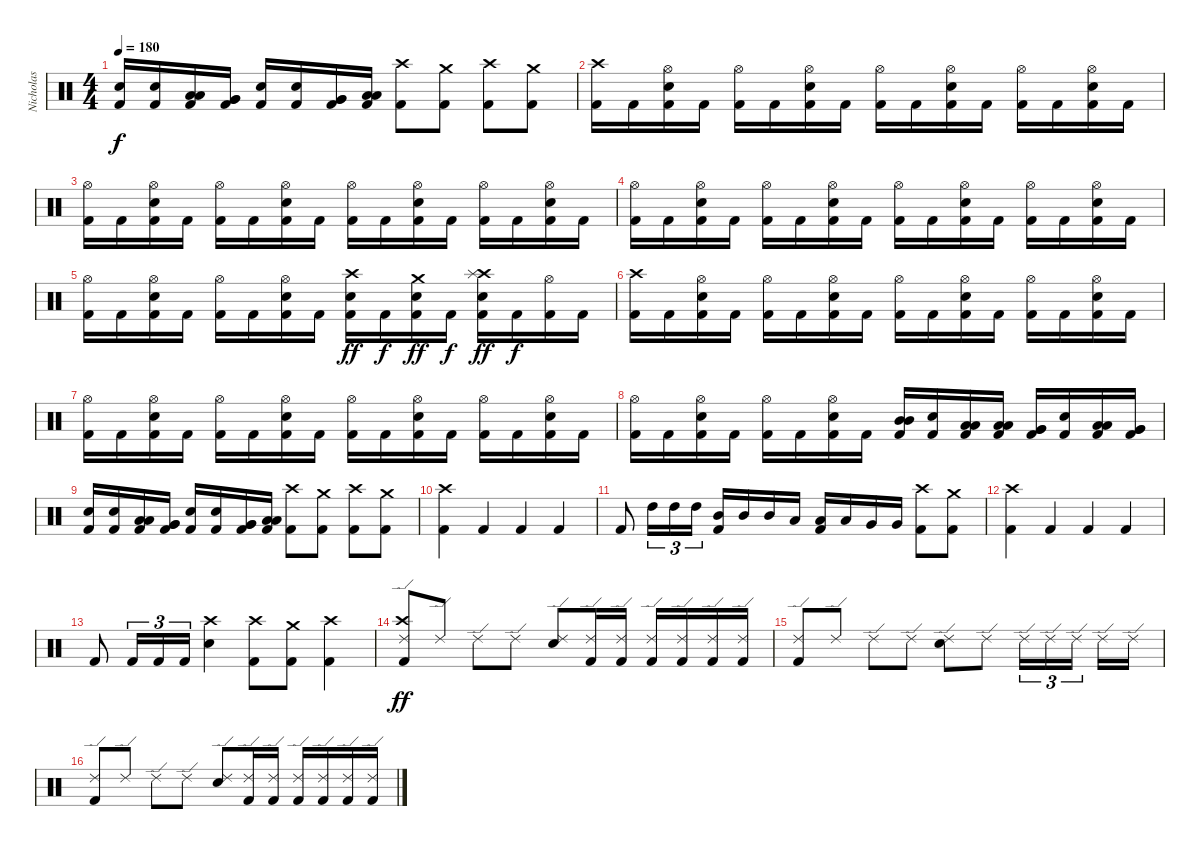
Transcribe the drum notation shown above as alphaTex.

\track ("Nicholas" "Nicholas") {instrument percussion}
\staff {score}
\articulation defaults
\ts (4 4)
\tempo 180
\clef neutral
\ks c
("Kick (hit) 2" "Electric Snare (hit)").16{dy f} ("Kick (hit) 2" "Electric Snare (hit)").16 ("Kick (hit) 2" "Low Tom (hit)" "Low Tom (hit)").16 ("Kick (hit) 2" "Very Low Tom (hit)" "Very Low Tom (hit)").16 ("Kick (hit) 2" "Electric Snare (hit)").16 ("Kick (hit) 2" "Electric Snare (hit)").16 ("Kick (hit) 2" "Very Low Tom (hit)" "Very Low Tom (hit)").16 ("Kick (hit) 2" "Low Floor Tom (hit)" "Low Floor Tom (hit)").16 ("Kick (hit) 2" "Crash high (hit)").8 ("Kick (hit) 2" "Crash medium (hit)").8 ("Kick (hit) 2" "Crash high (hit)").8 ("Kick (hit) 2" "Crash medium (hit)").8 |
("Kick (hit) 2" "Crash high (hit)").16 "Kick (hit) 2".16 ("Kick (hit) 2" "Electric Snare (hit)" "Hi-Hat (open)").16 "Kick (hit) 2".16 ("Kick (hit) 2" "Hi-Hat (open)").16 "Kick (hit) 2".16 ("Kick (hit) 2" "Electric Snare (hit)" "Hi-Hat (open)").16 "Kick (hit) 2".16 ("Kick (hit) 2" "Hi-Hat (open)").16 "Kick (hit) 2".16 ("Kick (hit) 2" "Electric Snare (hit)" "Hi-Hat (open)").16 "Kick (hit) 2".16 ("Kick (hit) 2" "Hi-Hat (open)").16 "Kick (hit) 2".16 ("Kick (hit) 2" "Electric Snare (hit)" "Hi-Hat (open)").16 "Kick (hit) 2".16 |
("Kick (hit) 2" "Hi-Hat (open)").16 "Kick (hit) 2".16 ("Kick (hit) 2" "Electric Snare (hit)" "Hi-Hat (open)").16 "Kick (hit) 2".16 ("Kick (hit) 2" "Hi-Hat (open)").16 "Kick (hit) 2".16 ("Kick (hit) 2" "Electric Snare (hit)" "Hi-Hat (open)").16 "Kick (hit) 2".16 ("Kick (hit) 2" "Hi-Hat (open)").16 "Kick (hit) 2".16 ("Kick (hit) 2" "Electric Snare (hit)" "Hi-Hat (open)").16 "Kick (hit) 2".16 ("Kick (hit) 2" "Hi-Hat (open)").16 "Kick (hit) 2".16 ("Kick (hit) 2" "Electric Snare (hit)" "Hi-Hat (open)").16 "Kick (hit) 2".16 |
("Kick (hit) 2" "Hi-Hat (open)").16 "Kick (hit) 2".16 ("Kick (hit) 2" "Electric Snare (hit)" "Hi-Hat (open)").16 "Kick (hit) 2".16 ("Kick (hit) 2" "Hi-Hat (open)").16 "Kick (hit) 2".16 ("Kick (hit) 2" "Electric Snare (hit)" "Hi-Hat (open)").16 "Kick (hit) 2".16 ("Kick (hit) 2" "Hi-Hat (open)").16 "Kick (hit) 2".16 ("Kick (hit) 2" "Electric Snare (hit)" "Hi-Hat (open)").16 "Kick (hit) 2".16 ("Kick (hit) 2" "Hi-Hat (open)").16 "Kick (hit) 2".16 ("Kick (hit) 2" "Electric Snare (hit)" "Hi-Hat (open)").16 "Kick (hit) 2".16 |
("Kick (hit) 2" "Hi-Hat (open)").16 "Kick (hit) 2".16 ("Kick (hit) 2" "Electric Snare (hit)" "Hi-Hat (open)").16 "Kick (hit) 2".16 ("Kick (hit) 2" "Hi-Hat (open)").16 "Kick (hit) 2".16 ("Kick (hit) 2" "Electric Snare (hit)" "Hi-Hat (open)").16 "Kick (hit) 2".16 ("Kick (hit) 2" "Electric Snare (hit)" "Crash high (hit)").16{dy ff} "Kick (hit) 2".16{dy f} ("Kick (hit) 2" "Electric Snare (hit)" "Crash medium (hit)").16{dy ff} "Kick (hit) 2".16{dy f} ("Kick (hit) 2" "Electric Snare (hit)" "Crash high (hit)" "Splash (hit)").16{dy ff} "Kick (hit) 2".16{dy f} ("Kick (hit) 2" "Hi-Hat (open)").16 "Kick (hit) 2".16 |
("Kick (hit) 2" "Crash high (hit)").16 "Kick (hit) 2".16 ("Kick (hit) 2" "Electric Snare (hit)" "Hi-Hat (open)").16 "Kick (hit) 2".16 ("Kick (hit) 2" "Hi-Hat (open)").16 "Kick (hit) 2".16 ("Kick (hit) 2" "Electric Snare (hit)" "Hi-Hat (open)").16 "Kick (hit) 2".16 ("Kick (hit) 2" "Hi-Hat (open)").16 "Kick (hit) 2".16 ("Kick (hit) 2" "Electric Snare (hit)" "Hi-Hat (open)").16 "Kick (hit) 2".16 ("Kick (hit) 2" "Hi-Hat (open)").16 "Kick (hit) 2".16 ("Kick (hit) 2" "Electric Snare (hit)" "Hi-Hat (open)").16 "Kick (hit) 2".16 |
("Kick (hit) 2" "Hi-Hat (open)").16 "Kick (hit) 2".16 ("Kick (hit) 2" "Electric Snare (hit)" "Hi-Hat (open)").16 "Kick (hit) 2".16 ("Kick (hit) 2" "Hi-Hat (open)").16 "Kick (hit) 2".16 ("Kick (hit) 2" "Electric Snare (hit)" "Hi-Hat (open)").16 "Kick (hit) 2".16 ("Kick (hit) 2" "Hi-Hat (open)").16 "Kick (hit) 2".16 ("Kick (hit) 2" "Electric Snare (hit)" "Hi-Hat (open)").16 "Kick (hit) 2".16 ("Kick (hit) 2" "Hi-Hat (open)").16 "Kick (hit) 2".16 ("Kick (hit) 2" "Electric Snare (hit)" "Hi-Hat (open)").16 "Kick (hit) 2".16 |
("Kick (hit) 2" "Hi-Hat (open)").16 "Kick (hit) 2".16 ("Kick (hit) 2" "Electric Snare (hit)" "Hi-Hat (open)").16 "Kick (hit) 2".16 ("Kick (hit) 2" "Hi-Hat (open)").16 "Kick (hit) 2".16 ("Kick (hit) 2" "Electric Snare (hit)" "Hi-Hat (open)").16 "Kick (hit) 2".16 ("Kick (hit) 2" "Mid Tom (hit)" "Mid Tom (hit)").16 ("Kick (hit) 2" "Electric Snare (hit)").16 ("Kick (hit) 2" "Low Tom (hit)" "Low Tom (hit)").16 ("Kick (hit) 2" "Low Tom (hit)" "Low Tom (hit)").16 ("Kick (hit) 2" "Very Low Tom (hit)" "Very Low Tom (hit)").16 ("Kick (hit) 2" "Electric Snare (hit)").16 ("Kick (hit) 2" "Low Tom (hit)" "Low Tom (hit)").16 ("Kick (hit) 2" "Very Low Tom (hit)" "Very Low Tom (hit)").16 |
("Kick (hit) 2" "Electric Snare (hit)").16 ("Kick (hit) 2" "Electric Snare (hit)").16 ("Kick (hit) 2" "Low Tom (hit)" "Low Tom (hit)").16 ("Kick (hit) 2" "Very Low Tom (hit)" "Very Low Tom (hit)").16 ("Kick (hit) 2" "Electric Snare (hit)").16 ("Kick (hit) 2" "Electric Snare (hit)").16 ("Kick (hit) 2" "Very Low Tom (hit)" "Very Low Tom (hit)").16 ("Kick (hit) 2" "Low Floor Tom (hit)" "Low Floor Tom (hit)").16 ("Kick (hit) 2" "Crash high (hit)").8 ("Kick (hit) 2" "Crash medium (hit)").8 ("Kick (hit) 2" "Crash high (hit)").8 ("Kick (hit) 2" "Crash medium (hit)").8 |
("Kick (hit) 2" "Crash high (hit)").4 "Kick (hit) 2".4 "Kick (hit) 2".4 "Kick (hit) 2".4 |
"Kick (hit) 2".8 "High Tom (hit)".16{tu (3 2)} "High Tom (hit)".16{tu (3 2)} "High Tom (hit)".16{tu (3 2)} ("Kick (hit) 2" "Mid Tom (hit)").16 "Mid Tom (hit)".16 "Mid Tom (hit)".16 "Low Tom (hit)".16 ("Kick (hit) 2" "Low Tom (hit)").16 "Low Tom (hit)".16 "Very Low Tom (hit)".16 "Very Low Tom (hit)".16 ("Kick (hit) 2" "Crash high (hit)").8 ("Kick (hit) 2" "Crash medium (hit)").8 |
("Kick (hit) 2" "Crash high (hit)").4 "Kick (hit) 2".4 "Kick (hit) 2".4 "Kick (hit) 2".4 |
"Kick (hit) 2".8 "Kick (hit) 2".16{tu (3 2)} "Kick (hit) 2".16{tu (3 2)} "Kick (hit) 2".16{tu (3 2)} ("Electric Snare (hit)" "Crash high (hit)").4 ("Kick (hit) 2" "Crash high (hit)").8 ("Kick (hit) 2" "Crash medium (hit)").8 ("Kick (hit) 2" "Crash high (hit)").4 |
("Kick (hit) 2" "Ride (edge) 2" "Crash high (hit)").8{dy ff} "Ride (edge) 2".8 "Ride (edge) 2".8 "Ride (edge) 2".8 ("Electric Snare (hit)" "Ride (edge) 2").8 ("Kick (hit) 2" "Ride (edge) 2").16 ("Kick (hit) 2" "Ride (edge) 2").16 ("Kick (hit) 2" "Ride (edge) 2").16 ("Kick (hit) 2" "Ride (edge) 2").16 ("Kick (hit) 2" "Ride (edge) 2").16 ("Kick (hit) 2" "Ride (edge) 2").16 |
("Kick (hit) 2" "Ride (edge) 2").8 "Ride (edge) 2".8 "Ride (edge) 2".8 "Ride (edge) 2".8 ("Electric Snare (hit)" "Ride (edge) 2").8 "Ride (edge) 2".8 "Ride (edge) 2".16{tu (3 2)} "Ride (edge) 2".16{tu (3 2)} "Ride (edge) 2".16{tu (3 2) beam splitsecondary} "Ride (edge) 2".16 "Ride (edge) 2".16 |
("Kick (hit) 2" "Ride (edge) 2").8 "Ride (edge) 2".8 "Ride (edge) 2".8 "Ride (edge) 2".8 ("Electric Snare (hit)" "Ride (edge) 2").8 ("Kick (hit) 2" "Ride (edge) 2").16 ("Kick (hit) 2" "Ride (edge) 2").16 ("Kick (hit) 2" "Ride (edge) 2").16 ("Kick (hit) 2" "Ride (edge) 2").16 ("Kick (hit) 2" "Ride (edge) 2").16 ("Kick (hit) 2" "Ride (edge) 2").16
